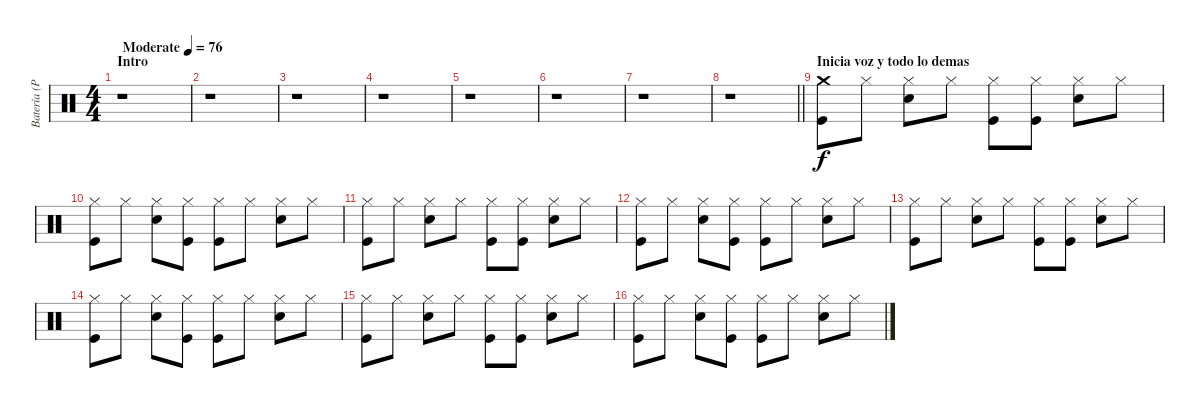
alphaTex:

\track ("Batería (Phill Selway)" "Batería (P") {instrument percussion}
\staff {score}
\articulation defaults
\ts (4 4)
\section ("" "Intro")
\tempo (76 "Moderate")
\clef neutral
\ks c
r.1{dy f} |
r.1 |
r.1 |
r.1 |
r.1 |
r.1 |
r.1 |
\barLineRight lightlight
r.1 |
\section ("" "Inicia voz y todo lo demas")
("Crash medium (hit)" "Kick (hit)").8 "Hi-Hat (closed)".8 ("Hi-Hat (closed)" "Snare (hit) 2").8 "Hi-Hat (closed)".8 ("Hi-Hat (closed)" "Kick (hit)").8 ("Hi-Hat (closed)" "Kick (hit)").8 ("Hi-Hat (closed)" "Snare (hit) 2").8 "Hi-Hat (closed)".8 |
("Hi-Hat (closed)" "Kick (hit)").8 "Hi-Hat (closed)".8 ("Hi-Hat (closed)" "Snare (hit) 2").8 ("Hi-Hat (closed)" "Kick (hit)").8 ("Hi-Hat (closed)" "Kick (hit)").8 "Hi-Hat (closed)".8 ("Hi-Hat (closed)" "Snare (hit) 2").8 "Hi-Hat (closed)".8 |
("Hi-Hat (closed)" "Kick (hit)").8 "Hi-Hat (closed)".8 ("Hi-Hat (closed)" "Snare (hit) 2").8 "Hi-Hat (closed)".8 ("Hi-Hat (closed)" "Kick (hit)").8 ("Hi-Hat (closed)" "Kick (hit)").8 ("Hi-Hat (closed)" "Snare (hit) 2").8 "Hi-Hat (closed)".8 |
("Hi-Hat (closed)" "Kick (hit)").8 "Hi-Hat (closed)".8 ("Hi-Hat (closed)" "Snare (hit) 2").8 ("Hi-Hat (closed)" "Kick (hit)").8 ("Hi-Hat (closed)" "Kick (hit)").8 "Hi-Hat (closed)".8 ("Hi-Hat (closed)" "Snare (hit) 2").8 "Hi-Hat (closed)".8 |
("Hi-Hat (closed)" "Kick (hit)").8 "Hi-Hat (closed)".8 ("Hi-Hat (closed)" "Snare (hit) 2").8 "Hi-Hat (closed)".8 ("Hi-Hat (closed)" "Kick (hit)").8 ("Hi-Hat (closed)" "Kick (hit)").8 ("Hi-Hat (closed)" "Snare (hit) 2").8 "Hi-Hat (closed)".8 |
("Hi-Hat (closed)" "Kick (hit)").8 "Hi-Hat (closed)".8 ("Hi-Hat (closed)" "Snare (hit) 2").8 ("Hi-Hat (closed)" "Kick (hit)").8 ("Hi-Hat (closed)" "Kick (hit)").8 "Hi-Hat (closed)".8 ("Hi-Hat (closed)" "Snare (hit) 2").8 "Hi-Hat (closed)".8 |
("Hi-Hat (closed)" "Kick (hit)").8 "Hi-Hat (closed)".8 ("Hi-Hat (closed)" "Snare (hit) 2").8 "Hi-Hat (closed)".8 ("Hi-Hat (closed)" "Kick (hit)").8 ("Hi-Hat (closed)" "Kick (hit)").8 ("Hi-Hat (closed)" "Snare (hit) 2").8 "Hi-Hat (closed)".8 |
("Hi-Hat (closed)" "Kick (hit)").8 "Hi-Hat (closed)".8 ("Hi-Hat (closed)" "Snare (hit) 2").8 ("Hi-Hat (closed)" "Kick (hit)").8 ("Hi-Hat (closed)" "Kick (hit)").8 "Hi-Hat (closed)".8 ("Hi-Hat (closed)" "Snare (hit) 2").8 "Hi-Hat (closed)".8
